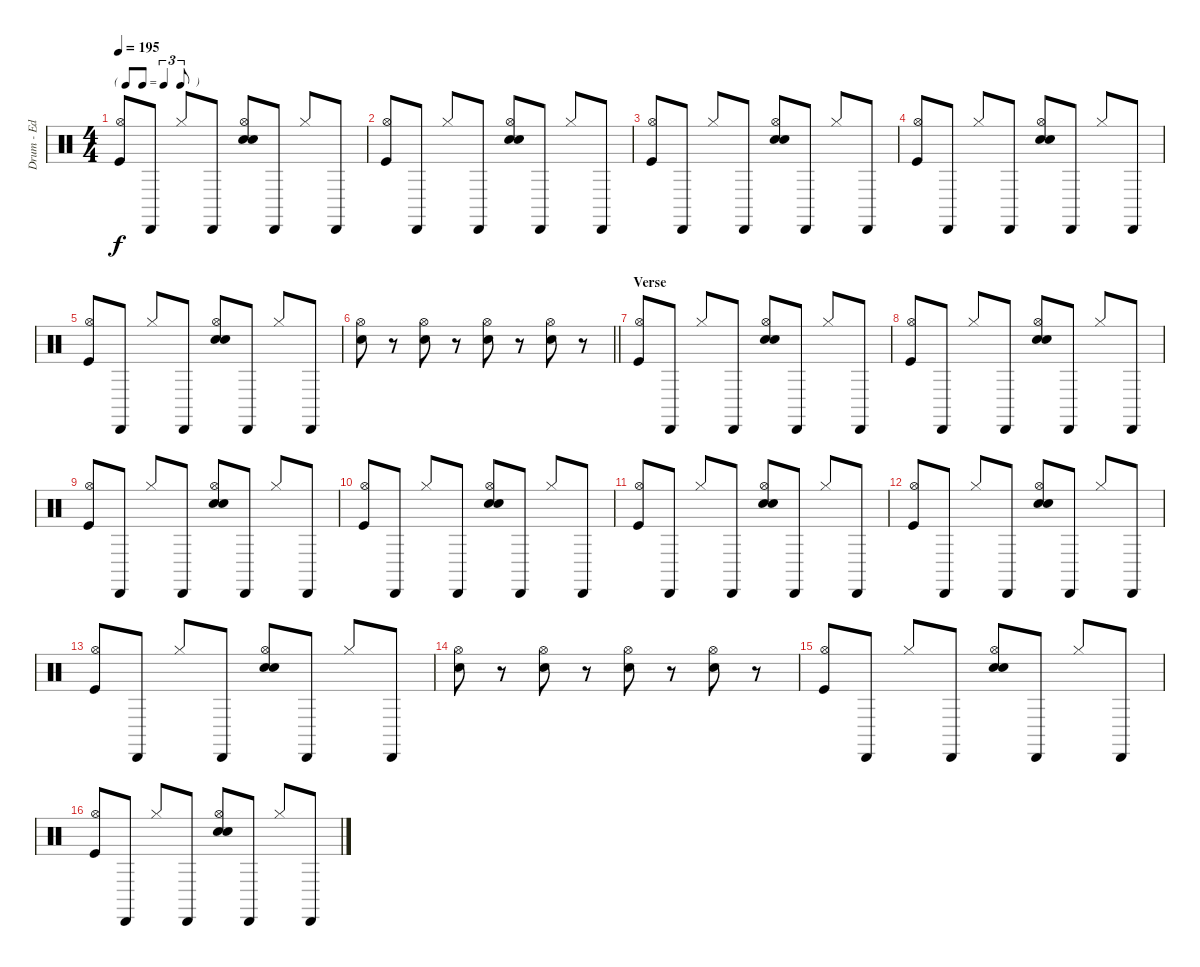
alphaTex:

\track ("Drum - Ed" "Drum - Ed") {instrument percussion}
\staff {score}
\articulation defaults
\ts (4 4)
\tf triplet8th
\tempo 195
\clef neutral
\ks c
("Hi-Hat (open)" "Kick (hit)").8{dy f} "Cabasa (hit)".8 "Hi-Hat (closed)".8 "Cabasa (hit)".8 ("Hi-Hat (open)" "Hand Clap (hit)" "Electric Snare (hit)").8 "Cabasa (hit)".8 "Hi-Hat (closed)".8 "Cabasa (hit)".8 |
("Hi-Hat (open)" "Kick (hit)").8 "Cabasa (hit)".8 "Hi-Hat (closed)".8 "Cabasa (hit)".8 ("Hi-Hat (open)" "Hand Clap (hit)" "Electric Snare (hit)").8 "Cabasa (hit)".8 "Hi-Hat (closed)".8 "Cabasa (hit)".8 |
("Hi-Hat (open)" "Kick (hit)").8 "Cabasa (hit)".8 "Hi-Hat (closed)".8 "Cabasa (hit)".8 ("Hi-Hat (open)" "Hand Clap (hit)" "Electric Snare (hit)").8 "Cabasa (hit)".8 "Hi-Hat (closed)".8 "Cabasa (hit)".8 |
("Hi-Hat (open)" "Kick (hit)").8 "Cabasa (hit)".8 "Hi-Hat (closed)".8 "Cabasa (hit)".8 ("Hi-Hat (open)" "Hand Clap (hit)" "Electric Snare (hit)").8 "Cabasa (hit)".8 "Hi-Hat (closed)".8 "Cabasa (hit)".8 |
("Hi-Hat (open)" "Kick (hit)").8 "Cabasa (hit)".8 "Hi-Hat (closed)".8 "Cabasa (hit)".8 ("Hi-Hat (open)" "Hand Clap (hit)" "Electric Snare (hit)").8 "Cabasa (hit)".8 "Hi-Hat (closed)".8 "Cabasa (hit)".8 |
\barLineRight lightlight
("Hi-Hat (open)" "Electric Snare (hit)").8 r.8 ("Hi-Hat (open)" "Electric Snare (hit)").8 r.8 ("Hi-Hat (open)" "Electric Snare (hit)").8 r.8 ("Hi-Hat (open)" "Electric Snare (hit)").8 r.8 |
\section ("" "Verse")
("Hi-Hat (open)" "Kick (hit)").8 "Cabasa (hit)".8 "Hi-Hat (closed)".8 "Cabasa (hit)".8 ("Hi-Hat (open)" "Hand Clap (hit)" "Electric Snare (hit)").8 "Cabasa (hit)".8 "Hi-Hat (closed)".8 "Cabasa (hit)".8 |
("Hi-Hat (open)" "Kick (hit)").8 "Cabasa (hit)".8 "Hi-Hat (closed)".8 "Cabasa (hit)".8 ("Hi-Hat (open)" "Hand Clap (hit)" "Electric Snare (hit)").8 "Cabasa (hit)".8 "Hi-Hat (closed)".8 "Cabasa (hit)".8 |
("Hi-Hat (open)" "Kick (hit)").8 "Cabasa (hit)".8 "Hi-Hat (closed)".8 "Cabasa (hit)".8 ("Hi-Hat (open)" "Hand Clap (hit)" "Electric Snare (hit)").8 "Cabasa (hit)".8 "Hi-Hat (closed)".8 "Cabasa (hit)".8 |
("Hi-Hat (open)" "Kick (hit)").8 "Cabasa (hit)".8 "Hi-Hat (closed)".8 "Cabasa (hit)".8 ("Hi-Hat (open)" "Hand Clap (hit)" "Electric Snare (hit)").8 "Cabasa (hit)".8 "Hi-Hat (closed)".8 "Cabasa (hit)".8 |
("Hi-Hat (open)" "Kick (hit)").8 "Cabasa (hit)".8 "Hi-Hat (closed)".8 "Cabasa (hit)".8 ("Hi-Hat (open)" "Hand Clap (hit)" "Electric Snare (hit)").8 "Cabasa (hit)".8 "Hi-Hat (closed)".8 "Cabasa (hit)".8 |
("Hi-Hat (open)" "Kick (hit)").8 "Cabasa (hit)".8 "Hi-Hat (closed)".8 "Cabasa (hit)".8 ("Hi-Hat (open)" "Hand Clap (hit)" "Electric Snare (hit)").8 "Cabasa (hit)".8 "Hi-Hat (closed)".8 "Cabasa (hit)".8 |
("Hi-Hat (open)" "Kick (hit)").8 "Cabasa (hit)".8 "Hi-Hat (closed)".8 "Cabasa (hit)".8 ("Hi-Hat (open)" "Hand Clap (hit)" "Electric Snare (hit)").8 "Cabasa (hit)".8 "Hi-Hat (closed)".8 "Cabasa (hit)".8 |
("Hi-Hat (open)" "Electric Snare (hit)").8 r.8 ("Hi-Hat (open)" "Electric Snare (hit)").8 r.8 ("Hi-Hat (open)" "Electric Snare (hit)").8 r.8 ("Hi-Hat (open)" "Electric Snare (hit)").8 r.8 |
("Hi-Hat (open)" "Kick (hit)").8 "Cabasa (hit)".8 "Hi-Hat (closed)".8 "Cabasa (hit)".8 ("Hi-Hat (open)" "Hand Clap (hit)" "Electric Snare (hit)").8 "Cabasa (hit)".8 "Hi-Hat (closed)".8 "Cabasa (hit)".8 |
("Hi-Hat (open)" "Kick (hit)").8 "Cabasa (hit)".8 "Hi-Hat (closed)".8 "Cabasa (hit)".8 ("Hi-Hat (open)" "Hand Clap (hit)" "Electric Snare (hit)").8 "Cabasa (hit)".8 "Hi-Hat (closed)".8 "Cabasa (hit)".8
